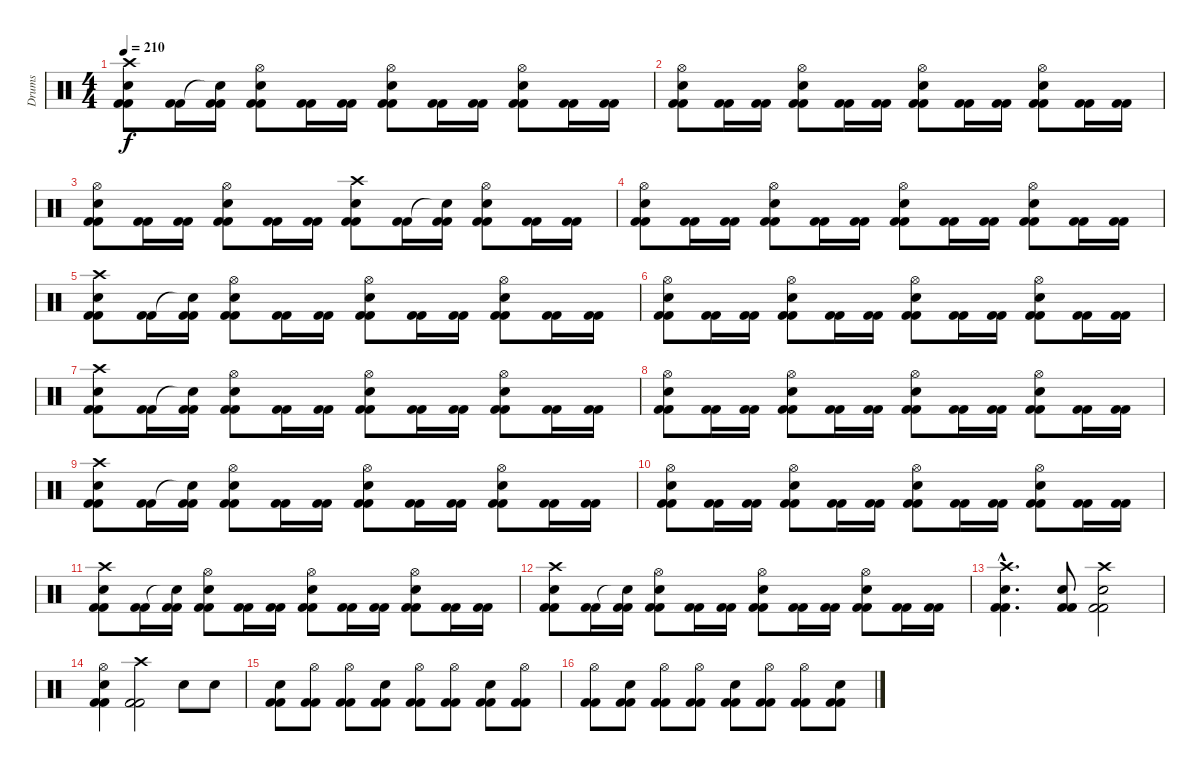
\track ("Drums" "Drums") {instrument percussion}
\staff {score}
\articulation defaults
\ts (4 4)
\tempo 210
\clef neutral
\ks c
("Crash high (hit)" "Snare (hit) 2" "Kick (hit) 2" "Kick (hit) 2").8{dy f} ("Kick (hit) 2" "Kick (hit) 2").16 ("Snare (hit)"{t} "Kick (hit) 2" "Kick (hit) 2").16 ("Hi-Hat (open)" "Snare (hit) 2" "Kick (hit) 2" "Kick (hit) 2").8 ("Kick (hit) 2" "Kick (hit) 2").16 ("Kick (hit) 2" "Kick (hit) 2").16 ("Hi-Hat (open)" "Snare (hit) 2" "Kick (hit) 2" "Kick (hit) 2").8 ("Kick (hit) 2" "Kick (hit) 2").16 ("Kick (hit) 2" "Kick (hit) 2").16 ("Hi-Hat (open)" "Snare (hit) 2" "Kick (hit) 2" "Kick (hit) 2").8 ("Kick (hit) 2" "Kick (hit) 2").16 ("Kick (hit) 2" "Kick (hit) 2").16 |
("Hi-Hat (open)" "Snare (hit) 2" "Kick (hit) 2" "Kick (hit) 2").8 ("Kick (hit) 2" "Kick (hit) 2").16 ("Kick (hit) 2" "Kick (hit) 2").16 ("Hi-Hat (open)" "Snare (hit) 2" "Kick (hit) 2" "Kick (hit) 2").8 ("Kick (hit) 2" "Kick (hit) 2").16 ("Kick (hit) 2" "Kick (hit) 2").16 ("Hi-Hat (open)" "Snare (hit) 2" "Kick (hit) 2" "Kick (hit) 2").8 ("Kick (hit) 2" "Kick (hit) 2").16 ("Kick (hit) 2" "Kick (hit) 2").16 ("Hi-Hat (open)" "Snare (hit) 2" "Kick (hit) 2" "Kick (hit) 2").8 ("Kick (hit) 2" "Kick (hit) 2").16 ("Kick (hit) 2" "Kick (hit) 2").16 |
("Hi-Hat (open)" "Snare (hit) 2" "Kick (hit) 2" "Kick (hit) 2").8 ("Kick (hit) 2" "Kick (hit) 2").16 ("Kick (hit) 2" "Kick (hit) 2").16 ("Hi-Hat (open)" "Snare (hit) 2" "Kick (hit) 2" "Kick (hit) 2").8 ("Kick (hit) 2" "Kick (hit) 2").16 ("Kick (hit) 2" "Kick (hit) 2").16 ("Crash high (hit)" "Snare (hit) 2" "Kick (hit) 2" "Kick (hit) 2").8 ("Kick (hit) 2" "Kick (hit) 2").16 ("Snare (hit)"{t} "Kick (hit) 2" "Kick (hit) 2").16 ("Hi-Hat (open)" "Snare (hit) 2" "Kick (hit) 2" "Kick (hit) 2").8 ("Kick (hit) 2" "Kick (hit) 2").16 ("Kick (hit) 2" "Kick (hit) 2").16 |
("Hi-Hat (open)" "Snare (hit) 2" "Kick (hit) 2" "Kick (hit) 2").8 ("Kick (hit) 2" "Kick (hit) 2").16 ("Kick (hit) 2" "Kick (hit) 2").16 ("Hi-Hat (open)" "Snare (hit) 2" "Kick (hit) 2" "Kick (hit) 2").8 ("Kick (hit) 2" "Kick (hit) 2").16 ("Kick (hit) 2" "Kick (hit) 2").16 ("Hi-Hat (open)" "Snare (hit) 2" "Kick (hit) 2" "Kick (hit) 2").8 ("Kick (hit) 2" "Kick (hit) 2").16 ("Kick (hit) 2" "Kick (hit) 2").16 ("Hi-Hat (open)" "Snare (hit) 2" "Kick (hit) 2" "Kick (hit) 2").8 ("Kick (hit) 2" "Kick (hit) 2").16 ("Kick (hit) 2" "Kick (hit) 2").16 |
("Crash high (hit)" "Snare (hit) 2" "Kick (hit) 2" "Kick (hit) 2").8 ("Kick (hit) 2" "Kick (hit) 2").16 ("Snare (hit)"{t} "Kick (hit) 2" "Kick (hit) 2").16 ("Hi-Hat (open)" "Snare (hit) 2" "Kick (hit) 2" "Kick (hit) 2").8 ("Kick (hit) 2" "Kick (hit) 2").16 ("Kick (hit) 2" "Kick (hit) 2").16 ("Hi-Hat (open)" "Snare (hit) 2" "Kick (hit) 2" "Kick (hit) 2").8 ("Kick (hit) 2" "Kick (hit) 2").16 ("Kick (hit) 2" "Kick (hit) 2").16 ("Hi-Hat (open)" "Snare (hit) 2" "Kick (hit) 2" "Kick (hit) 2").8 ("Kick (hit) 2" "Kick (hit) 2").16 ("Kick (hit) 2" "Kick (hit) 2").16 |
("Hi-Hat (open)" "Snare (hit) 2" "Kick (hit) 2" "Kick (hit) 2").8 ("Kick (hit) 2" "Kick (hit) 2").16 ("Kick (hit) 2" "Kick (hit) 2").16 ("Hi-Hat (open)" "Snare (hit) 2" "Kick (hit) 2" "Kick (hit) 2").8 ("Kick (hit) 2" "Kick (hit) 2").16 ("Kick (hit) 2" "Kick (hit) 2").16 ("Hi-Hat (open)" "Snare (hit) 2" "Kick (hit) 2" "Kick (hit) 2").8 ("Kick (hit) 2" "Kick (hit) 2").16 ("Kick (hit) 2" "Kick (hit) 2").16 ("Hi-Hat (open)" "Snare (hit) 2" "Kick (hit) 2" "Kick (hit) 2").8 ("Kick (hit) 2" "Kick (hit) 2").16 ("Kick (hit) 2" "Kick (hit) 2").16 |
("Crash high (hit)" "Snare (hit) 2" "Kick (hit) 2" "Kick (hit) 2").8 ("Kick (hit) 2" "Kick (hit) 2").16 ("Snare (hit)"{t} "Kick (hit) 2" "Kick (hit) 2").16 ("Hi-Hat (open)" "Snare (hit) 2" "Kick (hit) 2" "Kick (hit) 2").8 ("Kick (hit) 2" "Kick (hit) 2").16 ("Kick (hit) 2" "Kick (hit) 2").16 ("Hi-Hat (open)" "Snare (hit) 2" "Kick (hit) 2" "Kick (hit) 2").8 ("Kick (hit) 2" "Kick (hit) 2").16 ("Kick (hit) 2" "Kick (hit) 2").16 ("Hi-Hat (open)" "Snare (hit) 2" "Kick (hit) 2" "Kick (hit) 2").8 ("Kick (hit) 2" "Kick (hit) 2").16 ("Kick (hit) 2" "Kick (hit) 2").16 |
("Hi-Hat (open)" "Snare (hit) 2" "Kick (hit) 2" "Kick (hit) 2").8 ("Kick (hit) 2" "Kick (hit) 2").16 ("Kick (hit) 2" "Kick (hit) 2").16 ("Hi-Hat (open)" "Snare (hit) 2" "Kick (hit) 2" "Kick (hit) 2").8 ("Kick (hit) 2" "Kick (hit) 2").16 ("Kick (hit) 2" "Kick (hit) 2").16 ("Hi-Hat (open)" "Snare (hit) 2" "Kick (hit) 2" "Kick (hit) 2").8 ("Kick (hit) 2" "Kick (hit) 2").16 ("Kick (hit) 2" "Kick (hit) 2").16 ("Hi-Hat (open)" "Snare (hit) 2" "Kick (hit) 2" "Kick (hit) 2").8 ("Kick (hit) 2" "Kick (hit) 2").16 ("Kick (hit) 2" "Kick (hit) 2").16 |
("Crash high (hit)" "Snare (hit) 2" "Kick (hit) 2" "Kick (hit) 2").8 ("Kick (hit) 2" "Kick (hit) 2").16 ("Snare (hit)"{t} "Kick (hit) 2" "Kick (hit) 2").16 ("Hi-Hat (open)" "Snare (hit) 2" "Kick (hit) 2" "Kick (hit) 2").8 ("Kick (hit) 2" "Kick (hit) 2").16 ("Kick (hit) 2" "Kick (hit) 2").16 ("Hi-Hat (open)" "Snare (hit) 2" "Kick (hit) 2" "Kick (hit) 2").8 ("Kick (hit) 2" "Kick (hit) 2").16 ("Kick (hit) 2" "Kick (hit) 2").16 ("Hi-Hat (open)" "Snare (hit) 2" "Kick (hit) 2" "Kick (hit) 2").8 ("Kick (hit) 2" "Kick (hit) 2").16 ("Kick (hit) 2" "Kick (hit) 2").16 |
("Hi-Hat (open)" "Snare (hit) 2" "Kick (hit) 2" "Kick (hit) 2").8 ("Kick (hit) 2" "Kick (hit) 2").16 ("Kick (hit) 2" "Kick (hit) 2").16 ("Hi-Hat (open)" "Snare (hit) 2" "Kick (hit) 2" "Kick (hit) 2").8 ("Kick (hit) 2" "Kick (hit) 2").16 ("Kick (hit) 2" "Kick (hit) 2").16 ("Hi-Hat (open)" "Snare (hit) 2" "Kick (hit) 2" "Kick (hit) 2").8 ("Kick (hit) 2" "Kick (hit) 2").16 ("Kick (hit) 2" "Kick (hit) 2").16 ("Hi-Hat (open)" "Snare (hit) 2" "Kick (hit) 2" "Kick (hit) 2").8 ("Kick (hit) 2" "Kick (hit) 2").16 ("Kick (hit) 2" "Kick (hit) 2").16 |
("Crash high (hit)" "Snare (hit) 2" "Kick (hit) 2" "Kick (hit) 2").8 ("Kick (hit) 2" "Kick (hit) 2").16 ("Snare (hit)"{t} "Kick (hit) 2" "Kick (hit) 2").16 ("Hi-Hat (open)" "Snare (hit) 2" "Kick (hit) 2" "Kick (hit) 2").8 ("Kick (hit) 2" "Kick (hit) 2").16 ("Kick (hit) 2" "Kick (hit) 2").16 ("Hi-Hat (open)" "Snare (hit) 2" "Kick (hit) 2" "Kick (hit) 2").8 ("Kick (hit) 2" "Kick (hit) 2").16 ("Kick (hit) 2" "Kick (hit) 2").16 ("Hi-Hat (open)" "Snare (hit) 2" "Kick (hit) 2" "Kick (hit) 2").8 ("Kick (hit) 2" "Kick (hit) 2").16 ("Kick (hit) 2" "Kick (hit) 2").16 |
("Crash high (hit)" "Snare (hit) 2" "Kick (hit) 2" "Kick (hit) 2").8 ("Kick (hit) 2" "Kick (hit) 2").16 ("Snare (hit)"{t} "Kick (hit) 2" "Kick (hit) 2").16 ("Hi-Hat (open)" "Snare (hit) 2" "Kick (hit) 2" "Kick (hit) 2").8 ("Kick (hit) 2" "Kick (hit) 2").16 ("Kick (hit) 2" "Kick (hit) 2").16 ("Hi-Hat (open)" "Snare (hit) 2" "Kick (hit) 2" "Kick (hit) 2").8 ("Kick (hit) 2" "Kick (hit) 2").16 ("Kick (hit) 2" "Kick (hit) 2").16 ("Hi-Hat (open)" "Snare (hit) 2" "Kick (hit) 2" "Kick (hit) 2").8 ("Kick (hit) 2" "Kick (hit) 2").16 ("Kick (hit) 2" "Kick (hit) 2").16 |
("Crash high (hit)"{hac} "Snare (hit) 2"{hac} "Kick (hit) 2"{hac} "Kick (hit) 2"{hac}).4{d} ("Electric Snare (hit)" "Kick (hit) 2" "Kick (hit) 2").8 ("Crash high (hit)" "Snare (hit) 2" "Kick (hit) 2" "Kick (hit) 2").2 |
("Hi-Hat (open)" "Snare (hit) 2" "Kick (hit) 2" "Kick (hit) 2").4 ("Crash high (hit)" "Kick (hit) 2" "Kick (hit) 2").2 "Snare (hit) 2".8 "Snare (hit) 2".8 |
("Snare (hit) 2" "Kick (hit) 2" "Kick (hit) 2").8 ("Hi-Hat (open)" "Kick (hit) 2" "Kick (hit) 2").8 ("Hi-Hat (open)" "Kick (hit) 2" "Kick (hit) 2").8 ("Snare (hit) 2" "Kick (hit) 2" "Kick (hit) 2").8 ("Hi-Hat (open)" "Kick (hit) 2" "Kick (hit) 2").8 ("Hi-Hat (open)" "Kick (hit) 2" "Kick (hit) 2").8 ("Snare (hit) 2" "Kick (hit) 2" "Kick (hit) 2").8 ("Hi-Hat (open)" "Kick (hit) 2" "Kick (hit) 2").8 |
("Hi-Hat (open)" "Kick (hit) 2" "Kick (hit) 2").8 ("Snare (hit) 2" "Kick (hit) 2" "Kick (hit) 2").8 ("Hi-Hat (open)" "Kick (hit) 2" "Kick (hit) 2").8 ("Hi-Hat (open)" "Kick (hit) 2" "Kick (hit) 2").8 ("Snare (hit) 2" "Kick (hit) 2" "Kick (hit) 2").8 ("Hi-Hat (open)" "Kick (hit) 2" "Kick (hit) 2").8 ("Hi-Hat (open)" "Kick (hit) 2" "Kick (hit) 2").8 ("Snare (hit) 2" "Kick (hit) 2" "Kick (hit) 2").8
